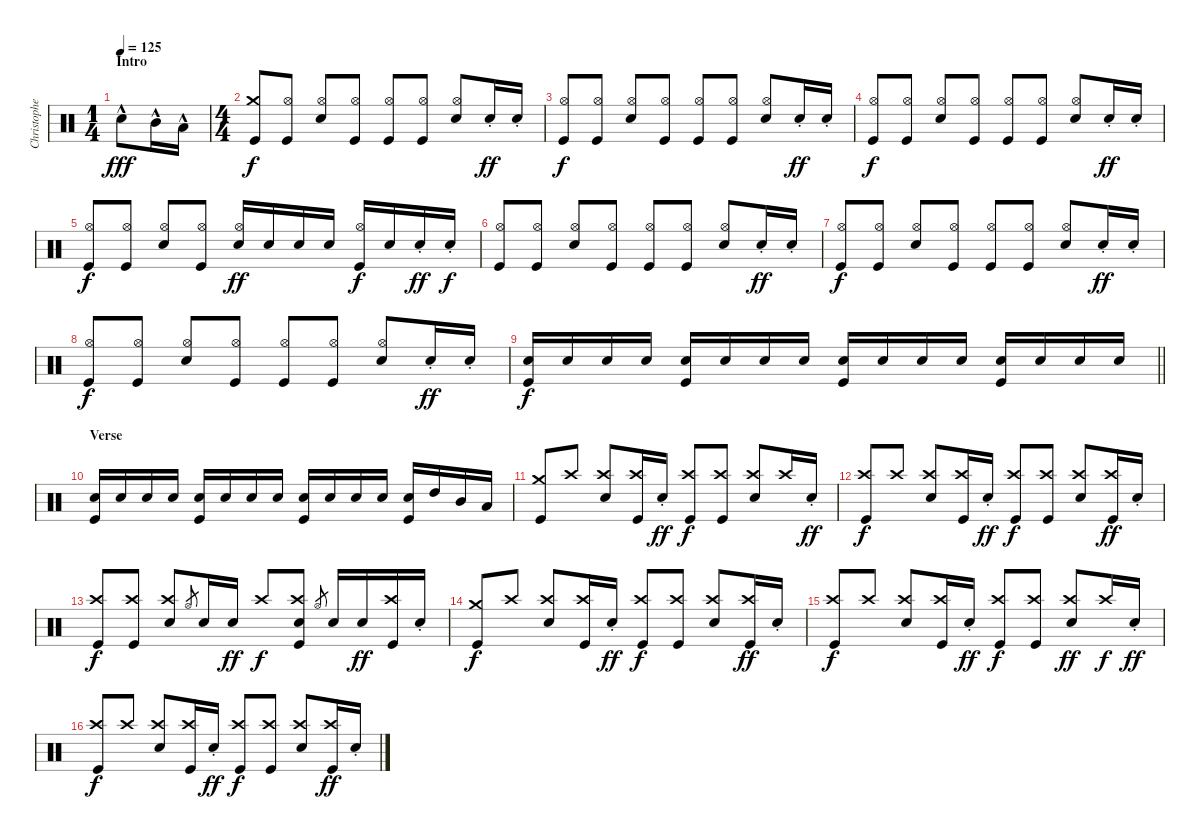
\track ("Christopher - Drums" "Christophe") {instrument percussion}
\staff {score}
\articulation defaults
\ts (1 4)
\section ("" "Intro")
\tempo 125
\clef neutral
\ks c "Electric Snare (hit)"{hac}.8{dy fff beam Down} "Mid Tom (hit)"{hac}.16{beam Down} "Low Floor Tom (hit)"{hac}.16{beam Down}
|
\ts (4 4)
("Crash medium (hit)" "Kick (hit)").8{dy f beam Up} ("Hi-Hat (open)" "Kick (hit)").8{beam Up} ("Hi-Hat (open)" "Electric Snare (hit)").8{beam Up} ("Hi-Hat (open)" "Kick (hit)").8{beam Up} ("Hi-Hat (open)" "Kick (hit)").8{beam Up} ("Hi-Hat (open)" "Kick (hit)").8{beam Up} ("Hi-Hat (open)" "Electric Snare (hit)").8{beam Up} "Electric Snare (hit)"{st}.16{dy ff beam Up} "Electric Snare (hit)"{st}.16{beam Up} |
("Hi-Hat (open)" "Kick (hit)").8{dy f beam Up} ("Hi-Hat (open)" "Kick (hit)").8{beam Up} ("Hi-Hat (open)" "Electric Snare (hit)").8{beam Up} ("Hi-Hat (open)" "Kick (hit)").8{beam Up} ("Hi-Hat (open)" "Kick (hit)").8{beam Up} ("Hi-Hat (open)" "Kick (hit)").8{beam Up} ("Hi-Hat (open)" "Electric Snare (hit)").8{beam Up} "Electric Snare (hit)"{st}.16{dy ff beam Up} "Electric Snare (hit)"{st}.16{beam Up} |
("Hi-Hat (open)" "Kick (hit)").8{dy f beam Up} ("Hi-Hat (open)" "Kick (hit)").8{beam Up} ("Hi-Hat (open)" "Electric Snare (hit)").8{beam Up} ("Hi-Hat (open)" "Kick (hit)").8{beam Up} ("Hi-Hat (open)" "Kick (hit)").8{beam Up} ("Hi-Hat (open)" "Kick (hit)").8{beam Up} ("Hi-Hat (open)" "Electric Snare (hit)").8{beam Up} "Electric Snare (hit)"{st}.16{dy ff beam Up} "Electric Snare (hit)"{st}.16{beam Up} |
("Hi-Hat (open)" "Kick (hit)").8{dy f beam Up} ("Hi-Hat (open)" "Kick (hit)").8{beam Up} ("Hi-Hat (open)" "Electric Snare (hit)").8{beam Up} ("Hi-Hat (open)" "Kick (hit)").8{beam Up} ("Hi-Hat (open)" "Electric Snare (hit)").16{dy ff beam Up} "Electric Snare (hit)".16{beam Up} "Electric Snare (hit)".16{beam Up} "Electric Snare (hit)".16{beam Up} ("Hi-Hat (open)" "Kick (hit)").16{dy f beam Up} "Electric Snare (hit)".16{beam Up} "Electric Snare (hit)"{st}.16{dy ff beam Up} "Electric Snare (hit)"{st}.16{dy f} |
("Hi-Hat (open)" "Kick (hit)").8{beam Up} ("Hi-Hat (open)" "Kick (hit)").8{beam Up} ("Hi-Hat (open)" "Electric Snare (hit)").8{beam Up} ("Hi-Hat (open)" "Kick (hit)").8{beam Up} ("Hi-Hat (open)" "Kick (hit)").8{beam Up} ("Hi-Hat (open)" "Kick (hit)").8{beam Up} ("Hi-Hat (open)" "Electric Snare (hit)").8{beam Up} "Electric Snare (hit)"{st}.16{dy ff beam Up} "Electric Snare (hit)"{st}.16{beam Up} |
("Hi-Hat (open)" "Kick (hit)").8{dy f beam Up} ("Hi-Hat (open)" "Kick (hit)").8{beam Up} ("Hi-Hat (open)" "Electric Snare (hit)").8{beam Up} ("Hi-Hat (open)" "Kick (hit)").8{beam Up} ("Hi-Hat (open)" "Kick (hit)").8{beam Up} ("Hi-Hat (open)" "Kick (hit)").8{beam Up} ("Hi-Hat (open)" "Electric Snare (hit)").8{beam Up} "Electric Snare (hit)"{st}.16{dy ff beam Up} "Electric Snare (hit)"{st}.16{beam Up} |
("Hi-Hat (open)" "Kick (hit)").8{dy f beam Up} ("Hi-Hat (open)" "Kick (hit)").8{beam Up} ("Hi-Hat (open)" "Electric Snare (hit)").8{beam Up} ("Hi-Hat (open)" "Kick (hit)").8{beam Up} ("Hi-Hat (open)" "Kick (hit)").8{beam Up} ("Hi-Hat (open)" "Kick (hit)").8{beam Up} ("Hi-Hat (open)" "Electric Snare (hit)").8{beam Up} "Electric Snare (hit)"{st}.16{dy ff beam Up} "Electric Snare (hit)"{st}.16{beam Up} |
\barLineRight lightlight
("Electric Snare (hit)" "Kick (hit)").16{dy f beam Up} "Electric Snare (hit)".16{beam Up} "Electric Snare (hit)".16{beam Up} "Electric Snare (hit)".16{beam Up} ("Electric Snare (hit)" "Kick (hit)").16{beam Up} "Electric Snare (hit)".16{beam Up} "Electric Snare (hit)".16{beam Up} "Electric Snare (hit)".16{beam Up} ("Electric Snare (hit)" "Kick (hit)").16{beam Up} "Electric Snare (hit)".16{beam Up} "Electric Snare (hit)".16{beam Up} "Electric Snare (hit)".16{beam Up} ("Electric Snare (hit)" "Kick (hit)").16{beam Up} "Electric Snare (hit)".16{beam Up} "Electric Snare (hit)".16{beam Up} "Electric Snare (hit)".16{beam Up} |
\section ("" "Verse")
("Electric Snare (hit)" "Kick (hit)").16{beam Up} "Electric Snare (hit)".16{beam Up} "Electric Snare (hit)".16{beam Up} "Electric Snare (hit)".16{beam Up} ("Electric Snare (hit)" "Kick (hit)").16{beam Up} "Electric Snare (hit)".16{beam Up} "Electric Snare (hit)".16{beam Up} "Electric Snare (hit)".16{beam Up} ("Electric Snare (hit)" "Kick (hit)").16{beam Up} "Electric Snare (hit)".16{beam Up} "Electric Snare (hit)".16{beam Up} "Electric Snare (hit)".16{beam Up} ("Electric Snare (hit)" "Kick (hit)").16{beam Up} "High Tom (hit)".16{beam Up} "Mid Tom (hit)".16{beam Up} "Low Floor Tom (hit)".16{beam Up} |
("Crash medium (hit)" "Kick (hit)").8{beam Up} "Crash high (hit)".8{beam Up} ("Crash high (hit)" "Electric Snare (hit)").8{beam Up} ("Crash high (hit)" "Kick (hit)").16{beam Up} "Electric Snare (hit)"{st}.16{dy ff beam Up} ("Crash high (hit)" "Kick (hit)").8{dy f beam Up} ("Crash high (hit)" "Kick (hit)").8{beam Up} ("Crash high (hit)" "Electric Snare (hit)").8{beam Up} "Crash high (hit)".16{beam Up} "Electric Snare (hit)"{st}.16{dy ff beam Up} |
("Crash high (hit)" "Kick (hit)").8{dy f beam Up} "Crash high (hit)".8{beam Up} ("Crash high (hit)" "Electric Snare (hit)").8{beam Up} ("Crash high (hit)" "Kick (hit)").16{beam Up} "Electric Snare (hit)"{st}.16{dy ff beam Up} ("Crash high (hit)" "Kick (hit)").8{dy f beam Up} ("Crash high (hit)" "Kick (hit)").8{beam Up} ("Crash high (hit)" "Electric Snare (hit)").8{beam Up} ("Crash high (hit)" "Kick (hit)").16{dy ff beam Up} "Electric Snare (hit)"{st}.16{beam Up} |
("Crash high (hit)" "Kick (hit)").8{dy f beam Up} ("Crash high (hit)" "Kick (hit)").8{beam Up} ("Crash high (hit)" "Electric Snare (hit)").8{beam Up} "Hi-Hat (open)".8{gr} "Electric Snare (hit)".16{beam Up} "Electric Snare (hit)".16{dy ff beam Up} "Crash high (hit)".8{dy f beam Up} ("Crash high (hit)" "Electric Snare (hit)" "Kick (hit)").8{beam Up} "Hi-Hat (open)".8{gr} "Electric Snare (hit)".16{beam Up} "Electric Snare (hit)".16{dy ff beam Up} ("Crash high (hit)" "Kick (hit)").16{beam Up} "Electric Snare (hit)"{st}.16{beam Up} |
("Crash medium (hit)" "Kick (hit)").8{dy f beam Up} "Crash high (hit)".8{beam Up} ("Crash high (hit)" "Electric Snare (hit)").8{beam Up} ("Crash high (hit)" "Kick (hit)").16{beam Up} "Electric Snare (hit)"{st}.16{dy ff beam Up} ("Crash high (hit)" "Kick (hit)").8{dy f beam Up} ("Crash high (hit)" "Kick (hit)").8{beam Up} ("Crash high (hit)" "Electric Snare (hit)").8{beam Up} ("Crash high (hit)" "Kick (hit)").16{dy ff beam Up} "Electric Snare (hit)"{st}.16{beam Up} |
("Crash high (hit)" "Kick (hit)").8{dy f beam Up} "Crash high (hit)".8{beam Up} ("Crash high (hit)" "Electric Snare (hit)").8{beam Up} ("Crash high (hit)" "Kick (hit)").16{beam Up} "Electric Snare (hit)"{st}.16{dy ff beam Up} ("Crash high (hit)" "Kick (hit)").8{dy f beam Up} ("Crash high (hit)" "Kick (hit)").8{beam Up} ("Crash high (hit)" "Electric Snare (hit)").8{dy ff beam Up} "Crash high (hit)".16{dy f beam Up} "Electric Snare (hit)"{st}.16{dy ff beam Up} |
("Crash high (hit)" "Kick (hit)").8{dy f beam Up} "Crash high (hit)".8{beam Up} ("Crash high (hit)" "Electric Snare (hit)").8{beam Up} ("Crash high (hit)" "Kick (hit)").16{beam Up} "Electric Snare (hit)"{st}.16{dy ff beam Up} ("Crash high (hit)" "Kick (hit)").8{dy f beam Up} ("Crash high (hit)" "Kick (hit)").8{beam Up} ("Crash high (hit)" "Electric Snare (hit)").8{beam Up} ("Crash high (hit)" "Kick (hit)").16{dy ff beam Up} "Electric Snare (hit)"{st}.16{beam Up}
